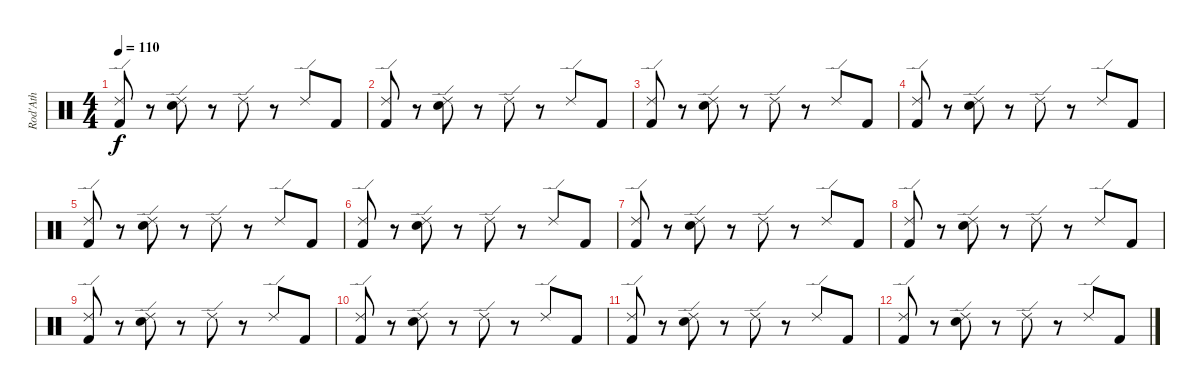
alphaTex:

\track ("Rod'Ath" "Rod'Ath") {instrument percussion}
\staff {score}
\articulation defaults
\ts (4 4)
\tempo 110
\clef neutral
\ks c
("Kick (hit) 2" "Ride (edge) 2").8{dy f} r.8 ("Electric Snare (hit)" "Ride (edge) 2").8 r.8 "Ride (edge) 2".8 r.8 "Ride (edge) 2".8 "Kick (hit) 2".8 |
("Kick (hit) 2" "Ride (edge) 2").8 r.8 ("Electric Snare (hit)" "Ride (edge) 2").8 r.8 "Ride (edge) 2".8 r.8 "Ride (edge) 2".8 "Kick (hit) 2".8 |
("Kick (hit) 2" "Ride (edge) 2").8 r.8 ("Electric Snare (hit)" "Ride (edge) 2").8 r.8 "Ride (edge) 2".8 r.8 "Ride (edge) 2".8 "Kick (hit) 2".8 |
("Kick (hit) 2" "Ride (edge) 2").8 r.8 ("Electric Snare (hit)" "Ride (edge) 2").8 r.8 "Ride (edge) 2".8 r.8 "Ride (edge) 2".8 "Kick (hit) 2".8 |
("Kick (hit) 2" "Ride (edge) 2").8 r.8 ("Electric Snare (hit)" "Ride (edge) 2").8 r.8 "Ride (edge) 2".8 r.8 "Ride (edge) 2".8 "Kick (hit) 2".8 |
("Kick (hit) 2" "Ride (edge) 2").8 r.8 ("Electric Snare (hit)" "Ride (edge) 2").8 r.8 "Ride (edge) 2".8 r.8 "Ride (edge) 2".8 "Kick (hit) 2".8 |
("Kick (hit) 2" "Ride (edge) 2").8 r.8 ("Electric Snare (hit)" "Ride (edge) 2").8 r.8 "Ride (edge) 2".8 r.8 "Ride (edge) 2".8 "Kick (hit) 2".8 |
("Kick (hit) 2" "Ride (edge) 2").8 r.8 ("Electric Snare (hit)" "Ride (edge) 2").8 r.8 "Ride (edge) 2".8 r.8 "Ride (edge) 2".8 "Kick (hit) 2".8 |
("Kick (hit) 2" "Ride (edge) 2").8 r.8 ("Electric Snare (hit)" "Ride (edge) 2").8 r.8 "Ride (edge) 2".8 r.8 "Ride (edge) 2".8 "Kick (hit) 2".8 |
("Kick (hit) 2" "Ride (edge) 2").8 r.8 ("Electric Snare (hit)" "Ride (edge) 2").8 r.8 "Ride (edge) 2".8 r.8 "Ride (edge) 2".8 "Kick (hit) 2".8 |
("Kick (hit) 2" "Ride (edge) 2").8 r.8 ("Electric Snare (hit)" "Ride (edge) 2").8 r.8 "Ride (edge) 2".8 r.8 "Ride (edge) 2".8 "Kick (hit) 2".8 |
("Kick (hit) 2" "Ride (edge) 2").8 r.8 ("Electric Snare (hit)" "Ride (edge) 2").8 r.8 "Ride (edge) 2".8 r.8 "Ride (edge) 2".8 "Kick (hit) 2".8
